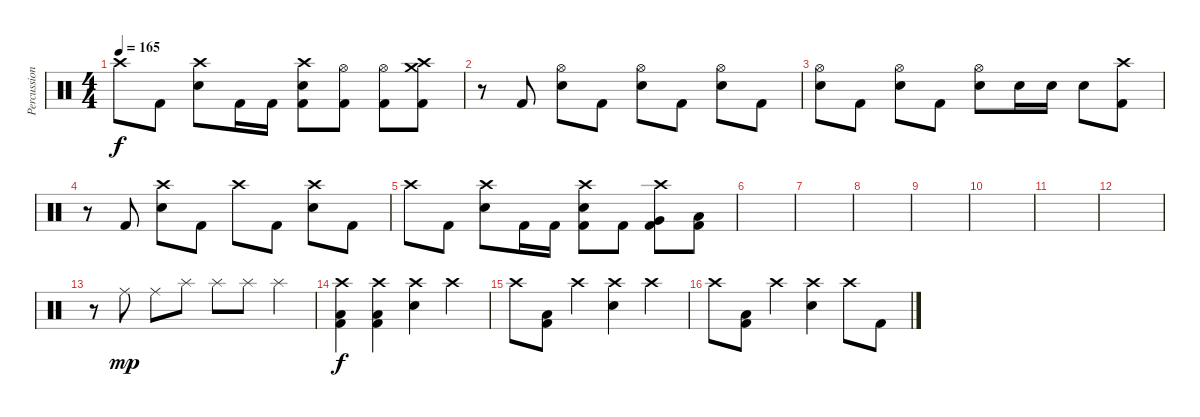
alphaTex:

\track ("Percussion" "Percussion") {instrument percussion}
\staff {score}
\articulation defaults
\ts (4 4)
\tempo 165
\clef neutral
\ks c "Crash high (hit)".8{dy f} "Kick (hit) 2".8
("Crash high (hit)" "Electric Snare (hit)").8 "Kick (hit) 2".16 "Kick (hit) 2".16 ("Crash high (hit)" "Electric Snare (hit)" "Kick (hit) 2").8 ("Hi-Hat (open)" "Kick (hit) 2").8 ("Hi-Hat (open)" "Kick (hit) 2").8 ("Crash medium (hit)" "Crash high (hit)" "Kick (hit) 2").8 |
r.8 "Kick (hit) 2".8 ("Hi-Hat (open)" "Electric Snare (hit)").8 "Kick (hit) 2".8 ("Hi-Hat (open)" "Electric Snare (hit)").8 "Kick (hit) 2".8 ("Hi-Hat (open)" "Electric Snare (hit)").8 "Kick (hit) 2".8 |
("Hi-Hat (open)" "Electric Snare (hit)").8 "Kick (hit) 2".8 ("Hi-Hat (open)" "Electric Snare (hit)").8 "Kick (hit) 2".8 ("Hi-Hat (open)" "Electric Snare (hit)").8 "Electric Snare (hit)".16 "Electric Snare (hit)".16 "Electric Snare (hit)".8 ("Crash high (hit)" "Kick (hit) 2").8 |
r.8 "Kick (hit) 2".8 ("Crash high (hit)" "Electric Snare (hit)").8 "Kick (hit) 2".8 "Crash high (hit)".8 "Kick (hit) 2".8 ("Crash high (hit)" "Electric Snare (hit)").8 "Kick (hit) 2".8 |
"Crash high (hit)".8 "Kick (hit) 2".8 ("Crash high (hit)" "Electric Snare (hit)").8 "Kick (hit) 2".16 "Kick (hit) 2".16 ("Crash high (hit)" "Electric Snare (hit)" "Kick (hit) 2").8 "Kick (hit) 2".8 ("Crash high (hit)" "Very Low Tom (hit)" "Kick (hit) 2").8 ("Low Floor Tom (hit)" "Kick (hit) 2").8 |
|
|
|
|
|
|
|
r.8 "Ride (middle)".8{dy mp} "Ride (middle)".8 "Splash (hit)".8 "Splash (hit)".8 "Splash (hit)".8 "Splash (hit)".4 |
("Crash high (hit)" "Low Floor Tom (hit)" "Kick (hit) 2").4{dy f} ("Crash high (hit)" "Low Floor Tom (hit)" "Kick (hit) 2").4 ("Crash high (hit)" "Electric Snare (hit)").4 "Crash high (hit)".4 |
"Crash high (hit)".8 ("Low Floor Tom (hit)" "Kick (hit) 2").8 "Crash high (hit)".4 ("Crash high (hit)" "Electric Snare (hit)").4 "Crash high (hit)".4 |
"Crash high (hit)".8 ("Low Floor Tom (hit)" "Kick (hit) 2").8 "Crash high (hit)".4 ("Crash high (hit)" "Electric Snare (hit)").4 "Crash high (hit)".8 "Kick (hit) 2".8
